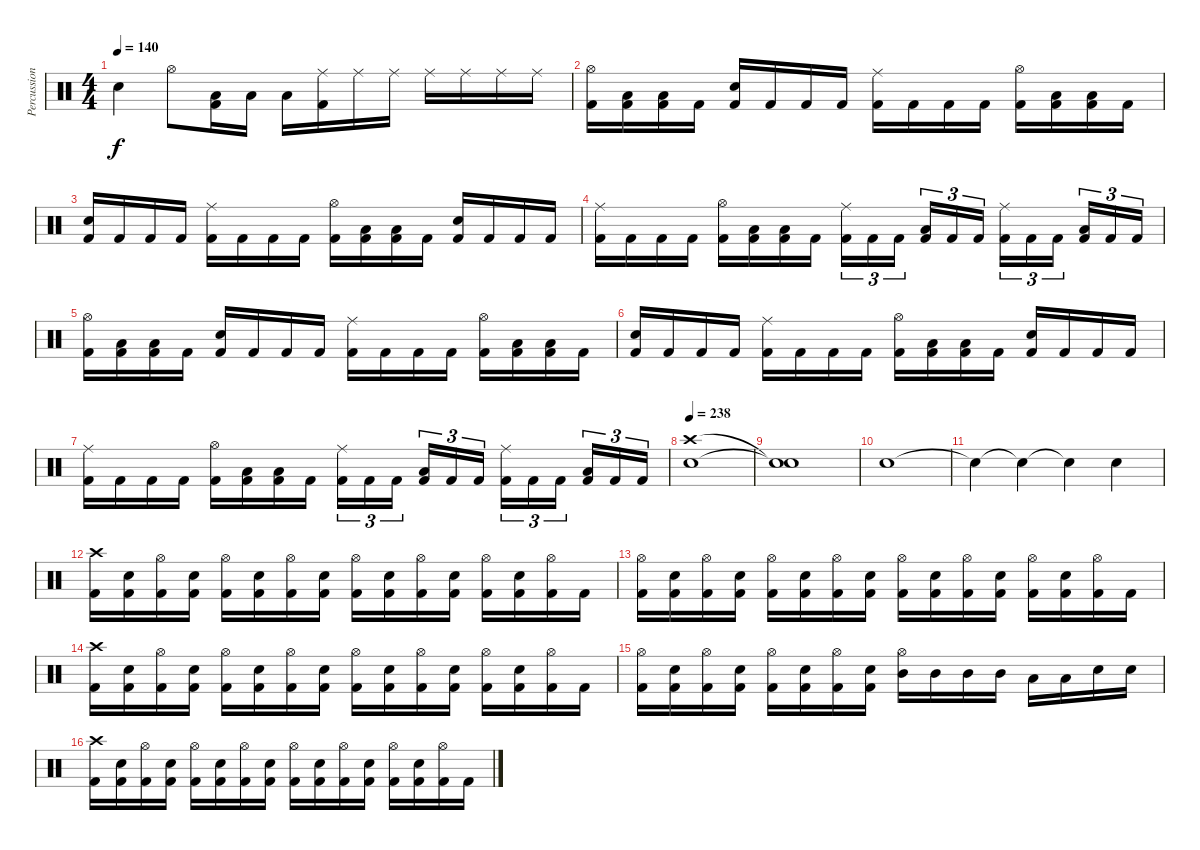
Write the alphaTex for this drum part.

\track ("Percussion" "Percussion") {instrument percussion}
\staff {score}
\articulation defaults
\ts (4 4)
\tempo 140
\clef neutral
\ks c "Snare (hit)"{t}.4{dy f} "Hi-Hat (open)".8
("Low Tom (hit)" "Kick (hit) 2").16 "Low Tom (hit)".16 "Low Tom (hit)".16 ("Ride (middle)" "Kick (hit) 2").16 "Ride (middle)".16 "Ride (middle)".16 "Ride (middle)".16 "Ride (middle)".16 "Ride (middle)".16 "Ride (middle)".16 |
("Hi-Hat (open)" "Kick (hit) 2").16 ("Low Tom (hit)" "Kick (hit) 2").16 ("Low Tom (hit)" "Kick (hit) 2").16 "Kick (hit) 2".16 ("Electric Snare (hit)" "Kick (hit) 2").16 "Kick (hit) 2".16 "Kick (hit) 2".16 "Kick (hit) 2".16 ("Ride (middle)" "Kick (hit) 2").16 "Kick (hit) 2".16 "Kick (hit) 2".16 "Kick (hit) 2".16 ("Hi-Hat (open)" "Kick (hit) 2").16 ("Low Tom (hit)" "Kick (hit) 2").16 ("Low Tom (hit)" "Kick (hit) 2").16 "Kick (hit) 2".16 |
("Electric Snare (hit)" "Kick (hit) 2").16 "Kick (hit) 2".16 "Kick (hit) 2".16 "Kick (hit) 2".16 ("Ride (middle)" "Kick (hit) 2").16 "Kick (hit) 2".16 "Kick (hit) 2".16 "Kick (hit) 2".16 ("Hi-Hat (open)" "Kick (hit) 2").16 ("Low Tom (hit)" "Kick (hit) 2").16 ("Low Tom (hit)" "Kick (hit) 2").16 "Kick (hit) 2".16 ("Electric Snare (hit)" "Kick (hit) 2").16 "Kick (hit) 2".16 "Kick (hit) 2".16 "Kick (hit) 2".16 |
("Ride (middle)" "Kick (hit) 2").16 "Kick (hit) 2".16 "Kick (hit) 2".16 "Kick (hit) 2".16 ("Hi-Hat (open)" "Kick (hit) 2").16 ("Low Tom (hit)" "Kick (hit) 2").16 ("Low Tom (hit)" "Kick (hit) 2").16 "Kick (hit) 2".16 ("Ride (middle)" "Kick (hit) 2").16{tu (3 2)} "Kick (hit) 2".16{tu (3 2)} "Kick (hit) 2".16{tu (3 2)} ("Low Tom (hit)" "Kick (hit) 2").16{tu (3 2)} "Kick (hit) 2".16{tu (3 2)} "Kick (hit) 2".16{tu (3 2)} ("Ride (middle)" "Kick (hit) 2").16{tu (3 2)} "Kick (hit) 2".16{tu (3 2)} "Kick (hit) 2".16{tu (3 2)} ("Low Tom (hit)" "Kick (hit) 2").16{tu (3 2)} "Kick (hit) 2".16{tu (3 2)} "Kick (hit) 2".16{tu (3 2)} |
("Hi-Hat (open)" "Kick (hit) 2").16 ("Low Tom (hit)" "Kick (hit) 2").16 ("Low Tom (hit)" "Kick (hit) 2").16 "Kick (hit) 2".16 ("Electric Snare (hit)" "Kick (hit) 2").16 "Kick (hit) 2".16 "Kick (hit) 2".16 "Kick (hit) 2".16 ("Ride (middle)" "Kick (hit) 2").16 "Kick (hit) 2".16 "Kick (hit) 2".16 "Kick (hit) 2".16 ("Hi-Hat (open)" "Kick (hit) 2").16 ("Low Tom (hit)" "Kick (hit) 2").16 ("Low Tom (hit)" "Kick (hit) 2").16 "Kick (hit) 2".16 |
("Electric Snare (hit)" "Kick (hit) 2").16 "Kick (hit) 2".16 "Kick (hit) 2".16 "Kick (hit) 2".16 ("Ride (middle)" "Kick (hit) 2").16 "Kick (hit) 2".16 "Kick (hit) 2".16 "Kick (hit) 2".16 ("Hi-Hat (open)" "Kick (hit) 2").16 ("Low Tom (hit)" "Kick (hit) 2").16 ("Low Tom (hit)" "Kick (hit) 2").16 "Kick (hit) 2".16 ("Electric Snare (hit)" "Kick (hit) 2").16 "Kick (hit) 2".16 "Kick (hit) 2".16 "Kick (hit) 2".16 |
("Ride (middle)" "Kick (hit) 2").16 "Kick (hit) 2".16 "Kick (hit) 2".16 "Kick (hit) 2".16 ("Hi-Hat (open)" "Kick (hit) 2").16 ("Low Tom (hit)" "Kick (hit) 2").16 ("Low Tom (hit)" "Kick (hit) 2").16 "Kick (hit) 2".16 ("Ride (middle)" "Kick (hit) 2").16{tu (3 2)} "Kick (hit) 2".16{tu (3 2)} "Kick (hit) 2".16{tu (3 2)} ("Low Tom (hit)" "Kick (hit) 2").16{tu (3 2)} "Kick (hit) 2".16{tu (3 2)} "Kick (hit) 2".16{tu (3 2)} ("Ride (middle)" "Kick (hit) 2").16{tu (3 2)} "Kick (hit) 2".16{tu (3 2)} "Kick (hit) 2".16{tu (3 2)} ("Low Tom (hit)" "Kick (hit) 2").16{tu (3 2)} "Kick (hit) 2".16{tu (3 2)} "Kick (hit) 2".16{tu (3 2)} |
\tempo 238
("Crash high (hit)" "Electric Snare (hit)").1 |
("Snare (hit)"{t} "Snare (hit)"{t}).1 |
"Electric Snare (hit)".1 |
"Snare (hit)"{t}.4 "Snare (hit)"{t}.4 "Snare (hit)"{t}.4 "Electric Snare (hit)".4 |
("Crash high (hit)" "Kick (hit) 2").16 ("Electric Snare (hit)" "Kick (hit) 2").16 ("Hi-Hat (open)" "Kick (hit) 2").16 ("Electric Snare (hit)" "Kick (hit) 2").16 ("Hi-Hat (open)" "Kick (hit) 2").16 ("Electric Snare (hit)" "Kick (hit) 2").16 ("Hi-Hat (open)" "Kick (hit) 2").16 ("Electric Snare (hit)" "Kick (hit) 2").16 ("Hi-Hat (open)" "Kick (hit) 2").16 ("Electric Snare (hit)" "Kick (hit) 2").16 ("Hi-Hat (open)" "Kick (hit) 2").16 ("Electric Snare (hit)" "Kick (hit) 2").16 ("Hi-Hat (open)" "Kick (hit) 2").16 ("Electric Snare (hit)" "Kick (hit) 2").16 ("Hi-Hat (open)" "Kick (hit) 2").16 "Kick (hit) 2".16 |
("Hi-Hat (open)" "Kick (hit) 2").16 ("Electric Snare (hit)" "Kick (hit) 2").16 ("Hi-Hat (open)" "Kick (hit) 2").16 ("Electric Snare (hit)" "Kick (hit) 2").16 ("Hi-Hat (open)" "Kick (hit) 2").16 ("Electric Snare (hit)" "Kick (hit) 2").16 ("Hi-Hat (open)" "Kick (hit) 2").16 ("Electric Snare (hit)" "Kick (hit) 2").16 ("Hi-Hat (open)" "Kick (hit) 2").16 ("Electric Snare (hit)" "Kick (hit) 2").16 ("Hi-Hat (open)" "Kick (hit) 2").16 ("Electric Snare (hit)" "Kick (hit) 2").16 ("Hi-Hat (open)" "Kick (hit) 2").16 ("Electric Snare (hit)" "Kick (hit) 2").16 ("Hi-Hat (open)" "Kick (hit) 2").16 "Kick (hit) 2".16 |
("Crash high (hit)" "Kick (hit) 2").16 ("Electric Snare (hit)" "Kick (hit) 2").16 ("Hi-Hat (open)" "Kick (hit) 2").16 ("Electric Snare (hit)" "Kick (hit) 2").16 ("Hi-Hat (open)" "Kick (hit) 2").16 ("Electric Snare (hit)" "Kick (hit) 2").16 ("Hi-Hat (open)" "Kick (hit) 2").16 ("Electric Snare (hit)" "Kick (hit) 2").16 ("Hi-Hat (open)" "Kick (hit) 2").16 ("Electric Snare (hit)" "Kick (hit) 2").16 ("Hi-Hat (open)" "Kick (hit) 2").16 ("Electric Snare (hit)" "Kick (hit) 2").16 ("Hi-Hat (open)" "Kick (hit) 2").16 ("Electric Snare (hit)" "Kick (hit) 2").16 ("Hi-Hat (open)" "Kick (hit) 2").16 "Kick (hit) 2".16 |
("Hi-Hat (open)" "Kick (hit) 2").16 ("Electric Snare (hit)" "Kick (hit) 2").16 ("Hi-Hat (open)" "Kick (hit) 2").16 ("Electric Snare (hit)" "Kick (hit) 2").16 ("Hi-Hat (open)" "Kick (hit) 2").16 ("Electric Snare (hit)" "Kick (hit) 2").16 ("Hi-Hat (open)" "Kick (hit) 2").16 ("Electric Snare (hit)" "Kick (hit) 2").16 ("Hi-Hat (open)" "Mid Tom (hit)").16 "Mid Tom (hit)".16 "Mid Tom (hit)".16 "Mid Tom (hit)".16 "Low Tom (hit)".16 "Low Tom (hit)".16 "Electric Snare (hit)".16 "Electric Snare (hit)".16 |
("Crash high (hit)" "Kick (hit) 2").16 ("Electric Snare (hit)" "Kick (hit) 2").16 ("Hi-Hat (open)" "Kick (hit) 2").16 ("Electric Snare (hit)" "Kick (hit) 2").16 ("Hi-Hat (open)" "Kick (hit) 2").16 ("Electric Snare (hit)" "Kick (hit) 2").16 ("Hi-Hat (open)" "Kick (hit) 2").16 ("Electric Snare (hit)" "Kick (hit) 2").16 ("Hi-Hat (open)" "Kick (hit) 2").16 ("Electric Snare (hit)" "Kick (hit) 2").16 ("Hi-Hat (open)" "Kick (hit) 2").16 ("Electric Snare (hit)" "Kick (hit) 2").16 ("Hi-Hat (open)" "Kick (hit) 2").16 ("Electric Snare (hit)" "Kick (hit) 2").16 ("Hi-Hat (open)" "Kick (hit) 2").16 "Kick (hit) 2".16
